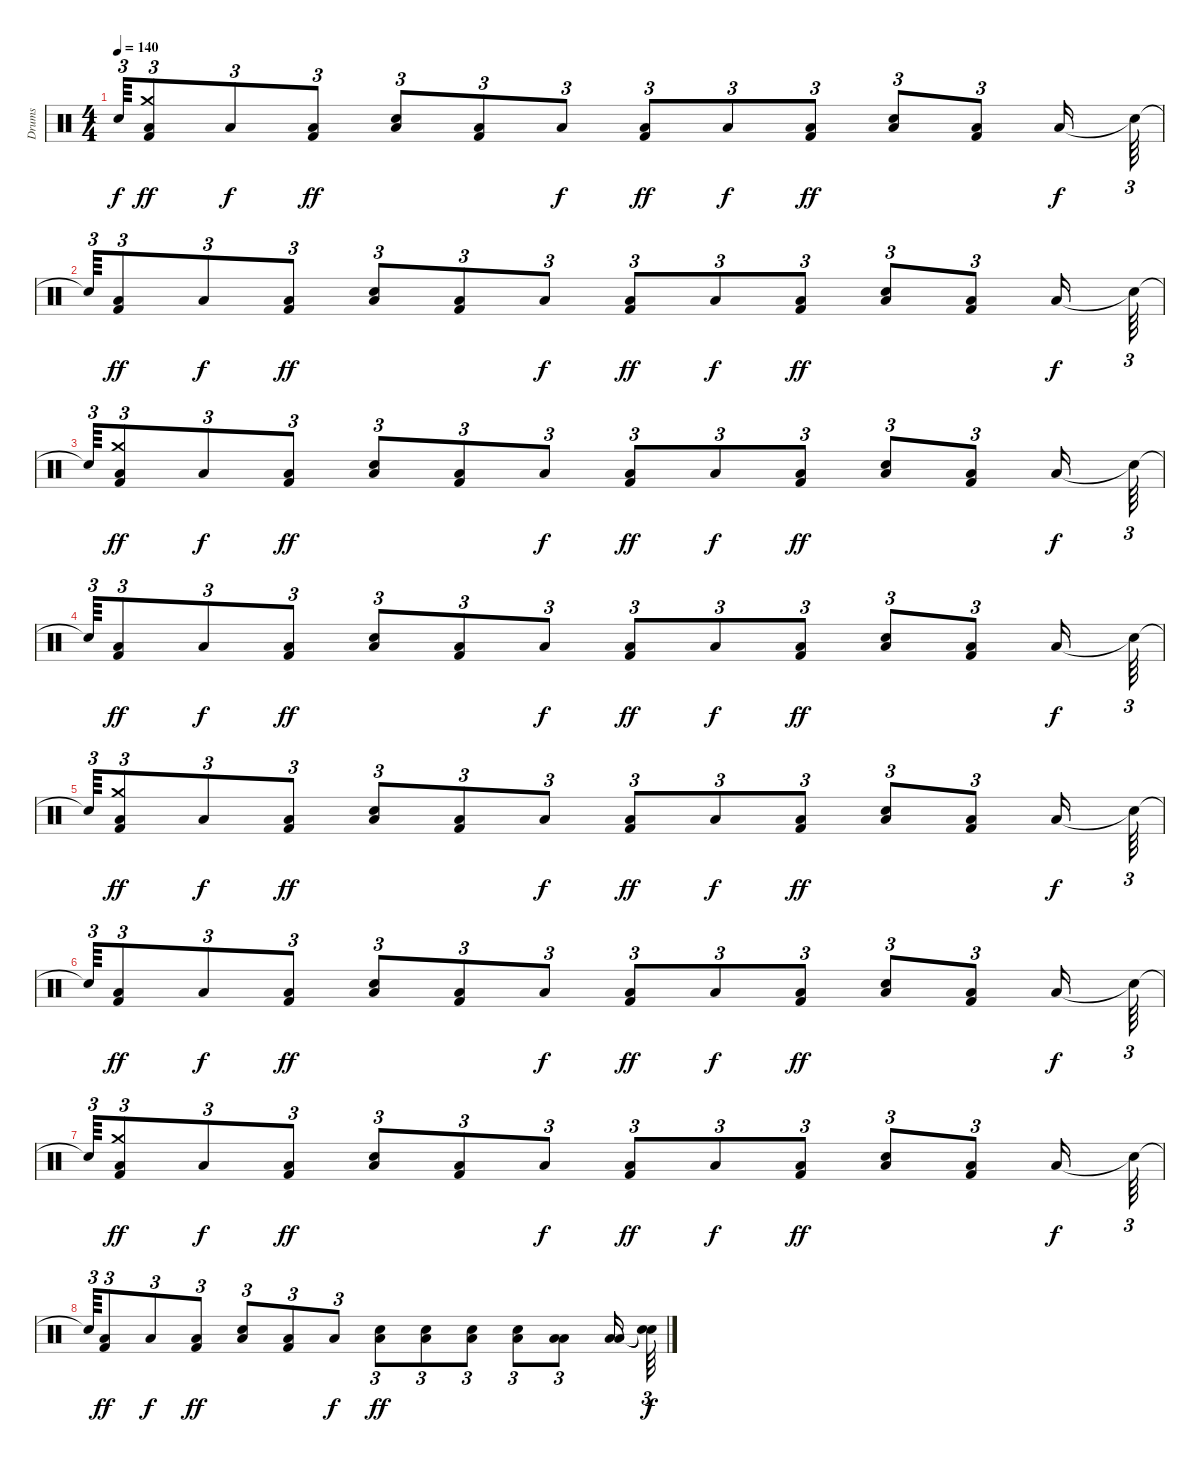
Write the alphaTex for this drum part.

\track ("Drums" "Drums") {instrument percussion}
\staff {score}
\articulation defaults
\ts (4 4)
\tempo 140
\clef neutral
\ks c "Snare (hit)"{t}.64{tu (3 2) dy f}
("Kick (hit) 2" "Crash medium (hit)" "Low Floor Tom (hit)").8{tu (3 2) dy ff} "Low Floor Tom (hit)".8{tu (3 2) dy f} ("Kick (hit) 2" "Low Floor Tom (hit)").8{tu (3 2) dy ff} ("Snare (hit) 2" "Low Floor Tom (hit)").8{tu (3 2)} ("Kick (hit) 2" "Low Floor Tom (hit)").8{tu (3 2)} "Low Floor Tom (hit)".8{tu (3 2) dy f} ("Kick (hit) 2" "Low Floor Tom (hit)").8{tu (3 2) dy ff} "Low Floor Tom (hit)".8{tu (3 2) dy f} ("Kick (hit) 2" "Low Floor Tom (hit)").8{tu (3 2) dy ff} ("Snare (hit) 2" "Low Floor Tom (hit)").8{tu (3 2)} ("Kick (hit) 2" "Low Floor Tom (hit)").8{tu (3 2)} "Low Floor Tom (hit)".16{dy f} "Snare (hit)"{t}.64{tu (3 2)} |
"Snare (hit)"{t}.64{tu (3 2)} ("Kick (hit) 2" "Low Floor Tom (hit)").8{tu (3 2) dy ff} "Low Floor Tom (hit)".8{tu (3 2) dy f} ("Kick (hit) 2" "Low Floor Tom (hit)").8{tu (3 2) dy ff} ("Snare (hit) 2" "Low Floor Tom (hit)").8{tu (3 2)} ("Kick (hit) 2" "Low Floor Tom (hit)").8{tu (3 2)} "Low Floor Tom (hit)".8{tu (3 2) dy f} ("Kick (hit) 2" "Low Floor Tom (hit)").8{tu (3 2) dy ff} "Low Floor Tom (hit)".8{tu (3 2) dy f} ("Kick (hit) 2" "Low Floor Tom (hit)").8{tu (3 2) dy ff} ("Snare (hit) 2" "Low Floor Tom (hit)").8{tu (3 2)} ("Kick (hit) 2" "Low Floor Tom (hit)").8{tu (3 2)} "Low Floor Tom (hit)".16{dy f} "Snare (hit)"{t}.64{tu (3 2)} |
"Snare (hit)"{t}.64{tu (3 2)} ("Kick (hit) 2" "Crash medium (hit)" "Low Floor Tom (hit)").8{tu (3 2) dy ff} "Low Floor Tom (hit)".8{tu (3 2) dy f} ("Kick (hit) 2" "Low Floor Tom (hit)").8{tu (3 2) dy ff} ("Snare (hit) 2" "Low Floor Tom (hit)").8{tu (3 2)} ("Kick (hit) 2" "Low Floor Tom (hit)").8{tu (3 2)} "Low Floor Tom (hit)".8{tu (3 2) dy f} ("Kick (hit) 2" "Low Floor Tom (hit)").8{tu (3 2) dy ff} "Low Floor Tom (hit)".8{tu (3 2) dy f} ("Kick (hit) 2" "Low Floor Tom (hit)").8{tu (3 2) dy ff} ("Snare (hit) 2" "Low Floor Tom (hit)").8{tu (3 2)} ("Kick (hit) 2" "Low Floor Tom (hit)").8{tu (3 2)} "Low Floor Tom (hit)".16{dy f} "Snare (hit)"{t}.64{tu (3 2)} |
"Snare (hit)"{t}.64{tu (3 2)} ("Kick (hit) 2" "Low Floor Tom (hit)").8{tu (3 2) dy ff} "Low Floor Tom (hit)".8{tu (3 2) dy f} ("Kick (hit) 2" "Low Floor Tom (hit)").8{tu (3 2) dy ff} ("Snare (hit) 2" "Low Floor Tom (hit)").8{tu (3 2)} ("Kick (hit) 2" "Low Floor Tom (hit)").8{tu (3 2)} "Low Floor Tom (hit)".8{tu (3 2) dy f} ("Kick (hit) 2" "Low Floor Tom (hit)").8{tu (3 2) dy ff} "Low Floor Tom (hit)".8{tu (3 2) dy f} ("Kick (hit) 2" "Low Floor Tom (hit)").8{tu (3 2) dy ff} ("Snare (hit) 2" "Low Floor Tom (hit)").8{tu (3 2)} ("Kick (hit) 2" "Low Floor Tom (hit)").8{tu (3 2)} "Low Floor Tom (hit)".16{dy f} "Snare (hit)"{t}.64{tu (3 2)} |
"Snare (hit)"{t}.64{tu (3 2)} ("Kick (hit) 2" "Crash medium (hit)" "Low Floor Tom (hit)").8{tu (3 2) dy ff} "Low Floor Tom (hit)".8{tu (3 2) dy f} ("Kick (hit) 2" "Low Floor Tom (hit)").8{tu (3 2) dy ff} ("Snare (hit) 2" "Low Floor Tom (hit)").8{tu (3 2)} ("Kick (hit) 2" "Low Floor Tom (hit)").8{tu (3 2)} "Low Floor Tom (hit)".8{tu (3 2) dy f} ("Kick (hit) 2" "Low Floor Tom (hit)").8{tu (3 2) dy ff} "Low Floor Tom (hit)".8{tu (3 2) dy f} ("Kick (hit) 2" "Low Floor Tom (hit)").8{tu (3 2) dy ff} ("Snare (hit) 2" "Low Floor Tom (hit)").8{tu (3 2)} ("Kick (hit) 2" "Low Floor Tom (hit)").8{tu (3 2)} "Low Floor Tom (hit)".16{dy f} "Snare (hit)"{t}.64{tu (3 2)} |
"Snare (hit)"{t}.64{tu (3 2)} ("Kick (hit) 2" "Low Floor Tom (hit)").8{tu (3 2) dy ff} "Low Floor Tom (hit)".8{tu (3 2) dy f} ("Kick (hit) 2" "Low Floor Tom (hit)").8{tu (3 2) dy ff} ("Snare (hit) 2" "Low Floor Tom (hit)").8{tu (3 2)} ("Kick (hit) 2" "Low Floor Tom (hit)").8{tu (3 2)} "Low Floor Tom (hit)".8{tu (3 2) dy f} ("Kick (hit) 2" "Low Floor Tom (hit)").8{tu (3 2) dy ff} "Low Floor Tom (hit)".8{tu (3 2) dy f} ("Kick (hit) 2" "Low Floor Tom (hit)").8{tu (3 2) dy ff} ("Snare (hit) 2" "Low Floor Tom (hit)").8{tu (3 2)} ("Kick (hit) 2" "Low Floor Tom (hit)").8{tu (3 2)} "Low Floor Tom (hit)".16{dy f} "Snare (hit)"{t}.64{tu (3 2)} |
"Snare (hit)"{t}.64{tu (3 2)} ("Kick (hit) 2" "Crash medium (hit)" "Low Floor Tom (hit)").8{tu (3 2) dy ff} "Low Floor Tom (hit)".8{tu (3 2) dy f} ("Kick (hit) 2" "Low Floor Tom (hit)").8{tu (3 2) dy ff} ("Snare (hit) 2" "Low Floor Tom (hit)").8{tu (3 2)} ("Kick (hit) 2" "Low Floor Tom (hit)").8{tu (3 2)} "Low Floor Tom (hit)".8{tu (3 2) dy f} ("Kick (hit) 2" "Low Floor Tom (hit)").8{tu (3 2) dy ff} "Low Floor Tom (hit)".8{tu (3 2) dy f} ("Kick (hit) 2" "Low Floor Tom (hit)").8{tu (3 2) dy ff} ("Snare (hit) 2" "Low Floor Tom (hit)").8{tu (3 2)} ("Kick (hit) 2" "Low Floor Tom (hit)").8{tu (3 2)} "Low Floor Tom (hit)".16{dy f} "Snare (hit)"{t}.64{tu (3 2)} |
"Snare (hit)"{t}.64{tu (3 2)} ("Kick (hit) 2" "Low Floor Tom (hit)").8{tu (3 2) dy ff} "Low Floor Tom (hit)".8{tu (3 2) dy f} ("Kick (hit) 2" "Low Floor Tom (hit)").8{tu (3 2) dy ff} ("Snare (hit) 2" "Low Floor Tom (hit)").8{tu (3 2)} ("Kick (hit) 2" "Low Floor Tom (hit)").8{tu (3 2)} "Low Floor Tom (hit)".8{tu (3 2) dy f} ("Snare (hit) 2" "Low Floor Tom (hit)").8{tu (3 2) dy ff} ("Snare (hit) 2" "Low Floor Tom (hit)").8{tu (3 2)} ("Snare (hit) 2" "Low Floor Tom (hit)").8{tu (3 2)} ("Snare (hit) 2" "Low Floor Tom (hit)").8{tu (3 2)} ("Low Tom (hit)" "Low Floor Tom (hit)").8{tu (3 2)} ("Low Floor Tom (hit)" "Low Floor Tom (hit)").16 ("Snare (hit)"{t} "Snare (hit)"{t}).64{tu (3 2) dy f}
